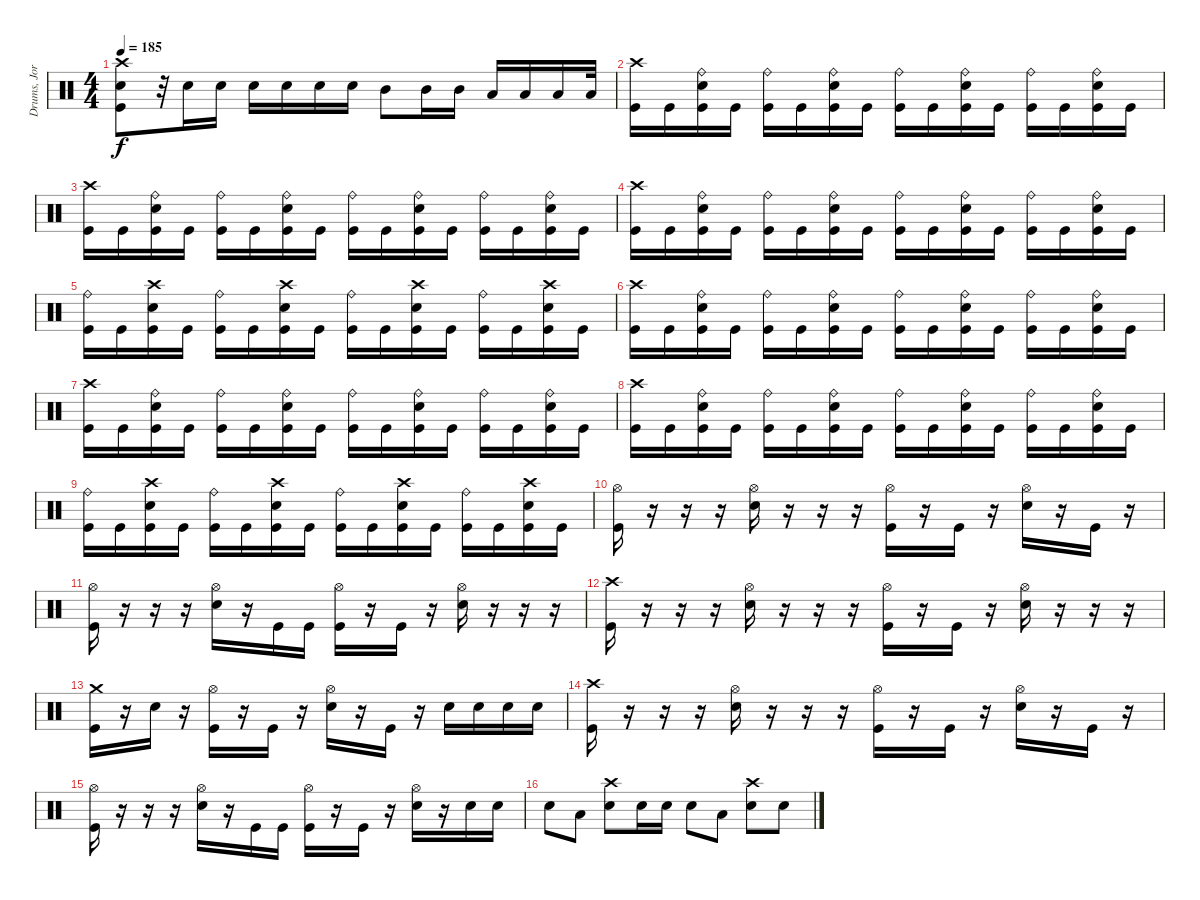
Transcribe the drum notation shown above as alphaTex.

\track ("Drums, Jorye Sáez" "Drums, Jor") {instrument percussion}
\staff {score}
\articulation defaults
\ts (4 4)
\tempo 185
\clef neutral
\ks c
("Crash high (hit)" "Electric Snare (hit)" "Kick (hit)").8{dy f} r.32 "Electric Snare (hit)".16 "Electric Snare (hit)".16 "Electric Snare (hit)".16 "Electric Snare (hit)".16 "Electric Snare (hit)".16 "Electric Snare (hit)".16 "Mid Tom (hit)".8 "Mid Tom (hit)".16 "Mid Tom (hit)".16 "Low Tom (hit)".16 "Low Tom (hit)".16 "Low Tom (hit)".16 "Low Tom (hit)".32 |
("Crash high (hit)" "Kick (hit)").16 "Kick (hit)".16 ("Ride (bell)" "Electric Snare (hit)" "Kick (hit)").16 "Kick (hit)".16 ("Ride (bell)" "Kick (hit)").16 "Kick (hit)".16 ("Ride (bell)" "Electric Snare (hit)" "Kick (hit)").16 "Kick (hit)".16 ("Ride (bell)" "Kick (hit)").16 "Kick (hit)".16 ("Ride (bell)" "Electric Snare (hit)" "Kick (hit)").16 "Kick (hit)".16 ("Ride (bell)" "Kick (hit)").16 "Kick (hit)".16 ("Ride (bell)" "Electric Snare (hit)" "Kick (hit)").16 "Kick (hit)".16 |
("Crash high (hit)" "Kick (hit)").16 "Kick (hit)".16 ("Ride (bell)" "Electric Snare (hit)" "Kick (hit)").16 "Kick (hit)".16 ("Ride (bell)" "Kick (hit)").16 "Kick (hit)".16 ("Ride (bell)" "Electric Snare (hit)" "Kick (hit)").16 "Kick (hit)".16 ("Ride (bell)" "Kick (hit)").16 "Kick (hit)".16 ("Ride (bell)" "Electric Snare (hit)" "Kick (hit)").16 "Kick (hit)".16 ("Ride (bell)" "Kick (hit)").16 "Kick (hit)".16 ("Ride (bell)" "Electric Snare (hit)" "Kick (hit)").16 "Kick (hit)".16 |
("Crash high (hit)" "Kick (hit)").16 "Kick (hit)".16 ("Ride (bell)" "Electric Snare (hit)" "Kick (hit)").16 "Kick (hit)".16 ("Ride (bell)" "Kick (hit)").16 "Kick (hit)".16 ("Ride (bell)" "Electric Snare (hit)" "Kick (hit)").16 "Kick (hit)".16 ("Ride (bell)" "Kick (hit)").16 "Kick (hit)".16 ("Ride (bell)" "Electric Snare (hit)" "Kick (hit)").16 "Kick (hit)".16 ("Ride (bell)" "Kick (hit)").16 "Kick (hit)".16 ("Ride (bell)" "Electric Snare (hit)" "Kick (hit)").16 "Kick (hit)".16 |
("Ride (bell)" "Kick (hit)").16 "Kick (hit)".16 ("Crash high (hit)" "Electric Snare (hit)" "Kick (hit)").16 "Kick (hit)".16 ("Ride (bell)" "Kick (hit)").16 "Kick (hit)".16 ("Crash high (hit)" "Electric Snare (hit)" "Kick (hit)").16 "Kick (hit)".16 ("Ride (bell)" "Kick (hit)").16 "Kick (hit)".16 ("Crash high (hit)" "Electric Snare (hit)" "Kick (hit)").16 "Kick (hit)".16 ("Ride (bell)" "Kick (hit)").16 "Kick (hit)".16 ("Crash high (hit)" "Electric Snare (hit)" "Kick (hit)").16 "Kick (hit)".16 |
("Crash high (hit)" "Kick (hit)").16 "Kick (hit)".16 ("Ride (bell)" "Electric Snare (hit)" "Kick (hit)").16 "Kick (hit)".16 ("Ride (bell)" "Kick (hit)").16 "Kick (hit)".16 ("Ride (bell)" "Electric Snare (hit)" "Kick (hit)").16 "Kick (hit)".16 ("Ride (bell)" "Kick (hit)").16 "Kick (hit)".16 ("Ride (bell)" "Electric Snare (hit)" "Kick (hit)").16 "Kick (hit)".16 ("Ride (bell)" "Kick (hit)").16 "Kick (hit)".16 ("Ride (bell)" "Electric Snare (hit)" "Kick (hit)").16 "Kick (hit)".16 |
("Crash high (hit)" "Kick (hit)").16 "Kick (hit)".16 ("Ride (bell)" "Electric Snare (hit)" "Kick (hit)").16 "Kick (hit)".16 ("Ride (bell)" "Kick (hit)").16 "Kick (hit)".16 ("Ride (bell)" "Electric Snare (hit)" "Kick (hit)").16 "Kick (hit)".16 ("Ride (bell)" "Kick (hit)").16 "Kick (hit)".16 ("Ride (bell)" "Electric Snare (hit)" "Kick (hit)").16 "Kick (hit)".16 ("Ride (bell)" "Kick (hit)").16 "Kick (hit)".16 ("Ride (bell)" "Electric Snare (hit)" "Kick (hit)").16 "Kick (hit)".16 |
("Crash high (hit)" "Kick (hit)").16 "Kick (hit)".16 ("Ride (bell)" "Electric Snare (hit)" "Kick (hit)").16 "Kick (hit)".16 ("Ride (bell)" "Kick (hit)").16 "Kick (hit)".16 ("Ride (bell)" "Electric Snare (hit)" "Kick (hit)").16 "Kick (hit)".16 ("Ride (bell)" "Kick (hit)").16 "Kick (hit)".16 ("Ride (bell)" "Electric Snare (hit)" "Kick (hit)").16 "Kick (hit)".16 ("Ride (bell)" "Kick (hit)").16 "Kick (hit)".16 ("Ride (bell)" "Electric Snare (hit)" "Kick (hit)").16 "Kick (hit)".16 |
("Ride (bell)" "Kick (hit)").16 "Kick (hit)".16 ("Crash high (hit)" "Electric Snare (hit)" "Kick (hit)").16 "Kick (hit)".16 ("Ride (bell)" "Kick (hit)").16 "Kick (hit)".16 ("Crash high (hit)" "Electric Snare (hit)" "Kick (hit)").16 "Kick (hit)".16 ("Ride (bell)" "Kick (hit)").16 "Kick (hit)".16 ("Crash high (hit)" "Electric Snare (hit)" "Kick (hit)").16 "Kick (hit)".16 ("Ride (bell)" "Kick (hit)").16 "Kick (hit)".16 ("Crash high (hit)" "Electric Snare (hit)" "Kick (hit)").16 "Kick (hit)".16 |
("Hi-Hat (open)" "Kick (hit)").16 r.16 r.16 r.16 ("Hi-Hat (open)" "Electric Snare (hit)").16 r.16 r.16 r.16 ("Hi-Hat (open)" "Kick (hit)").16 r.16 "Kick (hit)".16 r.16 ("Hi-Hat (open)" "Electric Snare (hit)").16 r.16 "Kick (hit)".16 r.16 |
("Hi-Hat (open)" "Kick (hit)").16 r.16 r.16 r.16 ("Hi-Hat (open)" "Electric Snare (hit)").16 r.16 "Kick (hit)".16 "Kick (hit)".16 ("Hi-Hat (open)" "Kick (hit)").16 r.16 "Kick (hit)".16 r.16 ("Hi-Hat (open)" "Electric Snare (hit)").16 r.16 r.16 r.16 |
("Crash high (hit)" "Kick (hit)").16 r.16 r.16 r.16 ("Hi-Hat (open)" "Electric Snare (hit)").16 r.16 r.16 r.16 ("Hi-Hat (open)" "Kick (hit)").16 r.16 "Kick (hit)".16 r.16 ("Hi-Hat (open)" "Electric Snare (hit)").16 r.16 r.16 r.16 |
("Crash medium (hit)" "Kick (hit)").16 r.16 "Electric Snare (hit)".16 r.16 ("Hi-Hat (open)" "Kick (hit)").16 r.16 "Kick (hit)".16 r.16 ("Hi-Hat (open)" "Electric Snare (hit)").16 r.16 "Kick (hit)".16 r.16 "Electric Snare (hit)".16 "Electric Snare (hit)".16 "Electric Snare (hit)".16 "Electric Snare (hit)".16 |
("Crash high (hit)" "Kick (hit)").16 r.16 r.16 r.16 ("Hi-Hat (open)" "Electric Snare (hit)").16 r.16 r.16 r.16 ("Hi-Hat (open)" "Kick (hit)").16 r.16 "Kick (hit)".16 r.16 ("Hi-Hat (open)" "Electric Snare (hit)").16 r.16 "Kick (hit)".16 r.16 |
("Hi-Hat (open)" "Kick (hit)").16 r.16 r.16 r.16 ("Hi-Hat (open)" "Electric Snare (hit)").16 r.16 "Kick (hit)".16 "Kick (hit)".16 ("Hi-Hat (open)" "Kick (hit)").16 r.16 "Kick (hit)".16 r.16 ("Hi-Hat (open)" "Electric Snare (hit)").16 r.16 "Electric Snare (hit)".16 "Electric Snare (hit)".16 |
"Electric Snare (hit)".8 "Low Tom (hit)".8 ("Electric Snare (hit)" "Crash high (hit)").8 "Electric Snare (hit)".16 "Electric Snare (hit)".16 "Electric Snare (hit)".8 "Low Tom (hit)".8 ("Electric Snare (hit)" "Crash high (hit)").8 "Electric Snare (hit)".8
